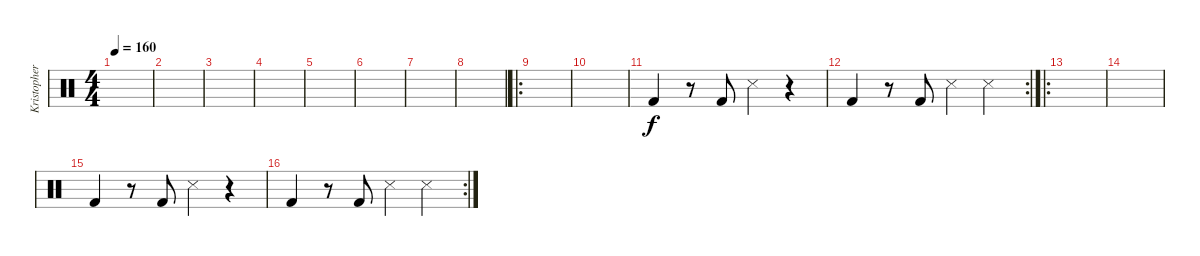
\track ("Kristopher Schau (deep freezer,stove)" "Kristopher") {instrument percussion}
\staff {score}
\articulation defaults
\ts (4 4)
\tempo 160
\clef neutral
\ks c
|
|
|
|
|
|
|
|
\ro
|
|
"Kick (hit) 2".4 r.8 "Kick (hit) 2".8 "Snare (side stick) 3".4 r.4 |
\rc 2 "Kick (hit) 2".4
r.8 "Kick (hit) 2".8 "Snare (side stick) 3".4 "Snare (side stick) 3".4 |
\ro
|
|
"Kick (hit) 2".4 r.8 "Kick (hit) 2".8 "Snare (side stick) 3".4 r.4 |
\rc 2 "Kick (hit) 2".4
r.8 "Kick (hit) 2".8 "Snare (side stick) 3".4 "Snare (side stick) 3".4
